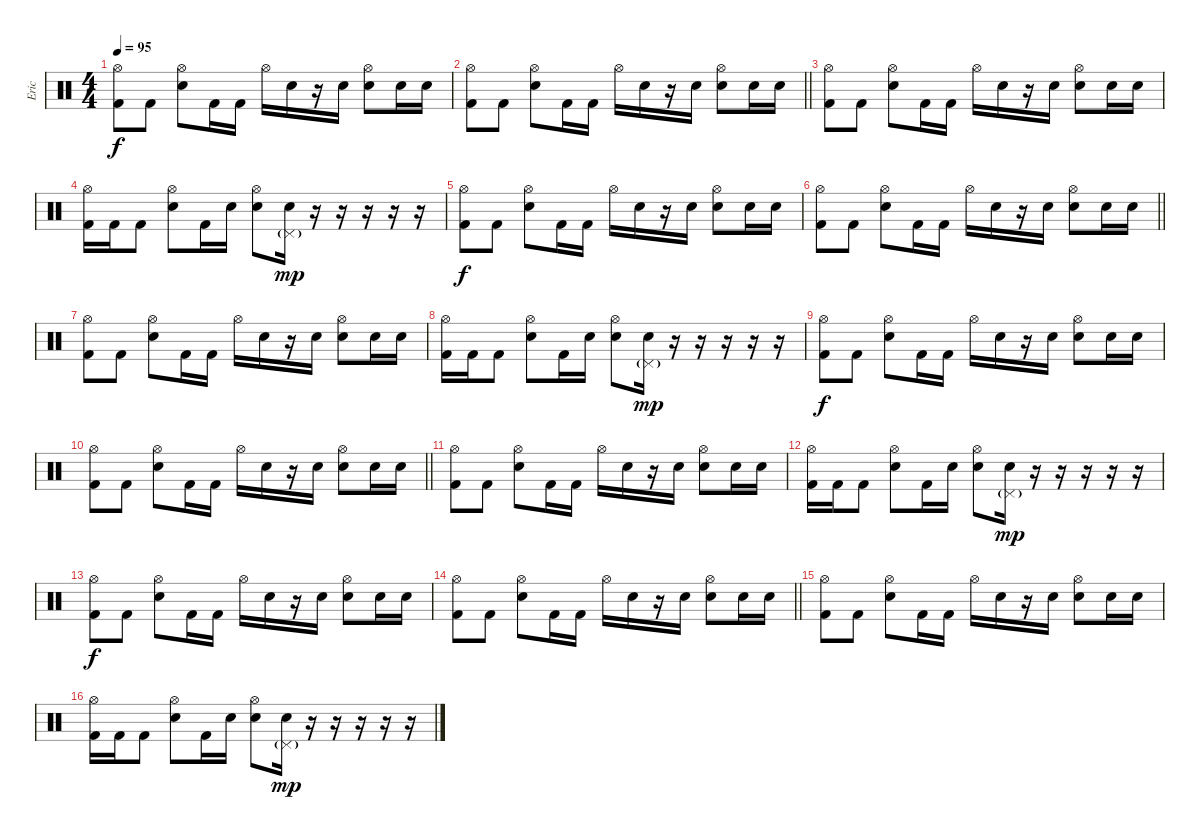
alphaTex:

\track ("Eric" "Eric") {instrument percussion}
\staff {score}
\articulation defaults
\ts (4 4)
\tempo 95
\clef neutral
\ks c
("Hi-Hat (open)" "Kick (hit) 2").8{dy f} "Kick (hit) 2".8 ("Hi-Hat (open)" "Electric Snare (hit)").8 "Kick (hit) 2".16 "Kick (hit) 2".16 "Hi-Hat (open)".16 "Electric Snare (hit)".16 r.16 "Electric Snare (hit)".16 ("Hi-Hat (open)" "Electric Snare (hit)").8 "Electric Snare (hit)".16 "Electric Snare (hit)".16 |
\barLineRight lightlight
("Hi-Hat (open)" "Kick (hit) 2").8 "Kick (hit) 2".8 ("Hi-Hat (open)" "Electric Snare (hit)").8 "Kick (hit) 2".16 "Kick (hit) 2".16 "Hi-Hat (open)".16 "Electric Snare (hit)".16 r.16 "Electric Snare (hit)".16 ("Hi-Hat (open)" "Electric Snare (hit)").8 "Electric Snare (hit)".16 "Electric Snare (hit)".16 |
\section ("" "")
("Hi-Hat (open)" "Kick (hit) 2").8 "Kick (hit) 2".8 ("Hi-Hat (open)" "Electric Snare (hit)").8 "Kick (hit) 2".16 "Kick (hit) 2".16 "Hi-Hat (open)".16 "Electric Snare (hit)".16 r.16 "Electric Snare (hit)".16 ("Hi-Hat (open)" "Electric Snare (hit)").8 "Electric Snare (hit)".16 "Electric Snare (hit)".16 |
("Hi-Hat (open)" "Kick (hit) 2").16 "Kick (hit) 2".16 "Kick (hit) 2".8 ("Hi-Hat (open)" "Electric Snare (hit)").8 "Kick (hit) 2".16 "Electric Snare (hit)".16 ("Hi-Hat (open)" "Electric Snare (hit)").8 ("Pedal Hi-Hat (hit)"{g} "Electric Snare (hit)").16{dy mp} r.16 r.16 r.16 r.16 r.16 |
("Hi-Hat (open)" "Kick (hit) 2").8{dy f} "Kick (hit) 2".8 ("Hi-Hat (open)" "Electric Snare (hit)").8 "Kick (hit) 2".16 "Kick (hit) 2".16 "Hi-Hat (open)".16 "Electric Snare (hit)".16 r.16 "Electric Snare (hit)".16 ("Hi-Hat (open)" "Electric Snare (hit)").8 "Electric Snare (hit)".16 "Electric Snare (hit)".16 |
\barLineRight lightlight
("Hi-Hat (open)" "Kick (hit) 2").8 "Kick (hit) 2".8 ("Hi-Hat (open)" "Electric Snare (hit)").8 "Kick (hit) 2".16 "Kick (hit) 2".16 "Hi-Hat (open)".16 "Electric Snare (hit)".16 r.16 "Electric Snare (hit)".16 ("Hi-Hat (open)" "Electric Snare (hit)").8 "Electric Snare (hit)".16 "Electric Snare (hit)".16 |
\section ("" "")
("Hi-Hat (open)" "Kick (hit) 2").8 "Kick (hit) 2".8 ("Hi-Hat (open)" "Electric Snare (hit)").8 "Kick (hit) 2".16 "Kick (hit) 2".16 "Hi-Hat (open)".16 "Electric Snare (hit)".16 r.16 "Electric Snare (hit)".16 ("Hi-Hat (open)" "Electric Snare (hit)").8 "Electric Snare (hit)".16 "Electric Snare (hit)".16 |
("Hi-Hat (open)" "Kick (hit) 2").16 "Kick (hit) 2".16 "Kick (hit) 2".8 ("Hi-Hat (open)" "Electric Snare (hit)").8 "Kick (hit) 2".16 "Electric Snare (hit)".16 ("Hi-Hat (open)" "Electric Snare (hit)").8 ("Pedal Hi-Hat (hit)"{g} "Electric Snare (hit)").16{dy mp} r.16 r.16 r.16 r.16 r.16 |
("Hi-Hat (open)" "Kick (hit) 2").8{dy f} "Kick (hit) 2".8 ("Hi-Hat (open)" "Electric Snare (hit)").8 "Kick (hit) 2".16 "Kick (hit) 2".16 "Hi-Hat (open)".16 "Electric Snare (hit)".16 r.16 "Electric Snare (hit)".16 ("Hi-Hat (open)" "Electric Snare (hit)").8 "Electric Snare (hit)".16 "Electric Snare (hit)".16 |
\barLineRight lightlight
("Hi-Hat (open)" "Kick (hit) 2").8 "Kick (hit) 2".8 ("Hi-Hat (open)" "Electric Snare (hit)").8 "Kick (hit) 2".16 "Kick (hit) 2".16 "Hi-Hat (open)".16 "Electric Snare (hit)".16 r.16 "Electric Snare (hit)".16 ("Hi-Hat (open)" "Electric Snare (hit)").8 "Electric Snare (hit)".16 "Electric Snare (hit)".16 |
\section ("" "")
("Hi-Hat (open)" "Kick (hit) 2").8 "Kick (hit) 2".8 ("Hi-Hat (open)" "Electric Snare (hit)").8 "Kick (hit) 2".16 "Kick (hit) 2".16 "Hi-Hat (open)".16 "Electric Snare (hit)".16 r.16 "Electric Snare (hit)".16 ("Hi-Hat (open)" "Electric Snare (hit)").8 "Electric Snare (hit)".16 "Electric Snare (hit)".16 |
("Hi-Hat (open)" "Kick (hit) 2").16 "Kick (hit) 2".16 "Kick (hit) 2".8 ("Hi-Hat (open)" "Electric Snare (hit)").8 "Kick (hit) 2".16 "Electric Snare (hit)".16 ("Hi-Hat (open)" "Electric Snare (hit)").8 ("Pedal Hi-Hat (hit)"{g} "Electric Snare (hit)").16{dy mp} r.16 r.16 r.16 r.16 r.16 |
("Hi-Hat (open)" "Kick (hit) 2").8{dy f} "Kick (hit) 2".8 ("Hi-Hat (open)" "Electric Snare (hit)").8 "Kick (hit) 2".16 "Kick (hit) 2".16 "Hi-Hat (open)".16 "Electric Snare (hit)".16 r.16 "Electric Snare (hit)".16 ("Hi-Hat (open)" "Electric Snare (hit)").8 "Electric Snare (hit)".16 "Electric Snare (hit)".16 |
\barLineRight lightlight
("Hi-Hat (open)" "Kick (hit) 2").8 "Kick (hit) 2".8 ("Hi-Hat (open)" "Electric Snare (hit)").8 "Kick (hit) 2".16 "Kick (hit) 2".16 "Hi-Hat (open)".16 "Electric Snare (hit)".16 r.16 "Electric Snare (hit)".16 ("Hi-Hat (open)" "Electric Snare (hit)").8 "Electric Snare (hit)".16 "Electric Snare (hit)".16 |
\section ("" "")
("Hi-Hat (open)" "Kick (hit) 2").8 "Kick (hit) 2".8 ("Hi-Hat (open)" "Electric Snare (hit)").8 "Kick (hit) 2".16 "Kick (hit) 2".16 "Hi-Hat (open)".16 "Electric Snare (hit)".16 r.16 "Electric Snare (hit)".16 ("Hi-Hat (open)" "Electric Snare (hit)").8 "Electric Snare (hit)".16 "Electric Snare (hit)".16 |
("Hi-Hat (open)" "Kick (hit) 2").16 "Kick (hit) 2".16 "Kick (hit) 2".8 ("Hi-Hat (open)" "Electric Snare (hit)").8 "Kick (hit) 2".16 "Electric Snare (hit)".16 ("Hi-Hat (open)" "Electric Snare (hit)").8 ("Pedal Hi-Hat (hit)"{g} "Electric Snare (hit)").16{dy mp} r.16 r.16 r.16 r.16 r.16
